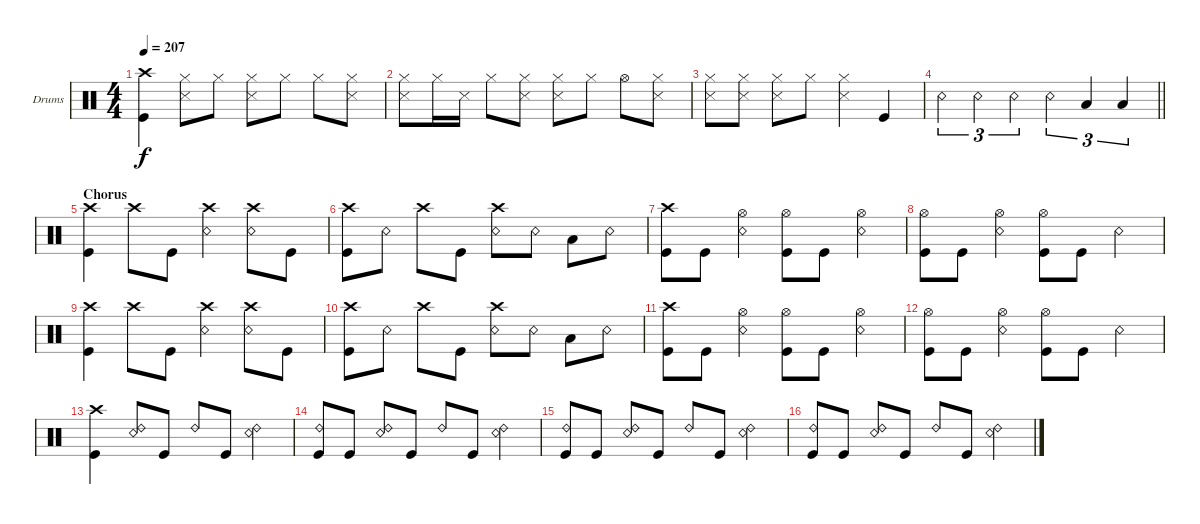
\defaultSystemsLayout 4
\bracketExtendMode groupsimilarinstruments
\firstSystemTrackNameOrientation horizontal
\otherSystemsTrackNameOrientation horizontal
\track ("Drums" "Drums") {instrument percussion}
\staff {score}
\articulation defaults
\ts (4 4)
\tempo 207
\clef neutral
\ks c
("Crash high (hit)" "Kick (hit)").4{dy f} ("Snare (side stick) 3" "Hi-Hat (closed)").8 "Hi-Hat (closed)".8 ("Snare (side stick) 3" "Hi-Hat (closed)").8 "Hi-Hat (closed)".8 "Hi-Hat (closed)".8 ("Hi-Hat (closed)" "Snare (side stick) 3").8 |
("Hi-Hat (closed)" "Snare (side stick) 3").8 "Hi-Hat (closed)".16 "Snare (side stick) 3".16 "Hi-Hat (closed)".8 ("Hi-Hat (closed)" "Snare (side stick) 3").8 ("Hi-Hat (closed)" "Snare (side stick) 3").8 "Hi-Hat (closed)".8 "Hi-Hat (open)".8 ("Hi-Hat (closed)" "Snare (side stick) 3").8 |
("Hi-Hat (closed)" "Snare (side stick) 3").8 ("Hi-Hat (closed)" "Snare (side stick) 3").8 ("Hi-Hat (closed)" "Snare (side stick) 3").8 "Hi-Hat (closed)".8 ("Snare (side stick) 3" "Hi-Hat (closed)").4 "Kick (hit)".4 |
\barLineRight lightlight "Snare (rim shot)".4{tu (3 2)} "Snare (rim shot)".4{tu (3 2)} "Snare (rim shot)".4{tu (3 2)} "Snare (rim shot)".4{tu (3 2)} "Low Tom (hit)".4{tu (3 2)} "Low Tom (hit)".4{tu (3 2)}
|
\section ("" "Chorus")
("Kick (hit)" "Crash high (hit)").4 "Crash high (hit)".8 "Kick (hit)".8 ("Snare (rim shot)" "Crash high (hit)").4 ("Snare (rim shot)" "Crash high (hit)").8 "Kick (hit)".8 |
("Kick (hit)" "Crash high (hit)").8 "Snare (rim shot)".8 "Crash high (hit)".8 "Kick (hit)".8 ("Snare (rim shot)" "Crash high (hit)").8 "Snare (rim shot)".8 "Low Tom (hit)".8 "Snare (rim shot)".8 |
("Kick (hit)" "Crash high (hit)").8 "Kick (hit)".8 ("Snare (rim shot)" "Hi-Hat (open)").4 ("Kick (hit)" "Hi-Hat (open)").8 "Kick (hit)".8 ("Snare (rim shot)" "Hi-Hat (open)").4 |
("Kick (hit)" "Hi-Hat (open)").8 "Kick (hit)".8 ("Snare (rim shot)" "Hi-Hat (open)").4 ("Kick (hit)" "Hi-Hat (open)").8 "Kick (hit)".8 "Snare (rim shot)".4 |
("Kick (hit)" "Crash high (hit)").4 "Crash high (hit)".8 "Kick (hit)".8 ("Snare (rim shot)" "Crash high (hit)").4 ("Snare (rim shot)" "Crash high (hit)").8 "Kick (hit)".8 |
("Kick (hit)" "Crash high (hit)").8 "Snare (rim shot)".8 "Crash high (hit)".8 "Kick (hit)".8 ("Snare (rim shot)" "Crash high (hit)").8 "Snare (rim shot)".8 "Low Tom (hit)".8 "Snare (rim shot)".8 |
("Kick (hit)" "Crash high (hit)").8 "Kick (hit)".8 ("Snare (rim shot)" "Hi-Hat (open)").4 ("Kick (hit)" "Hi-Hat (open)").8 "Kick (hit)".8 ("Snare (rim shot)" "Hi-Hat (open)").4 |
("Kick (hit)" "Hi-Hat (open)").8 "Kick (hit)".8 ("Snare (rim shot)" "Hi-Hat (open)").4 ("Kick (hit)" "Hi-Hat (open)").8 "Kick (hit)".8 "Snare (rim shot)".4 |
("Kick (hit)" "Crash high (hit)").4 ("Snare (rim shot)" "Ride (bell) 2").8 "Kick (hit)".8 "Ride (bell) 2".8 "Kick (hit)".8 ("Snare (rim shot)" "Ride (bell) 2").4 |
("Kick (hit)" "Ride (bell) 2").8 "Kick (hit)".8 ("Snare (rim shot)" "Ride (bell) 2").8 "Kick (hit)".8 "Ride (bell) 2".8 "Kick (hit)".8 ("Snare (rim shot)" "Ride (bell) 2").4 |
("Kick (hit)" "Ride (bell) 2").8 "Kick (hit)".8 ("Snare (rim shot)" "Ride (bell) 2").8 "Kick (hit)".8 "Ride (bell) 2".8 "Kick (hit)".8 ("Snare (rim shot)" "Ride (bell) 2").4 |
("Kick (hit)" "Ride (bell) 2").8 "Kick (hit)".8 ("Snare (rim shot)" "Ride (bell) 2").8 "Kick (hit)".8 "Ride (bell) 2".8 "Kick (hit)".8 ("Snare (rim shot)" "Ride (bell) 2").4
